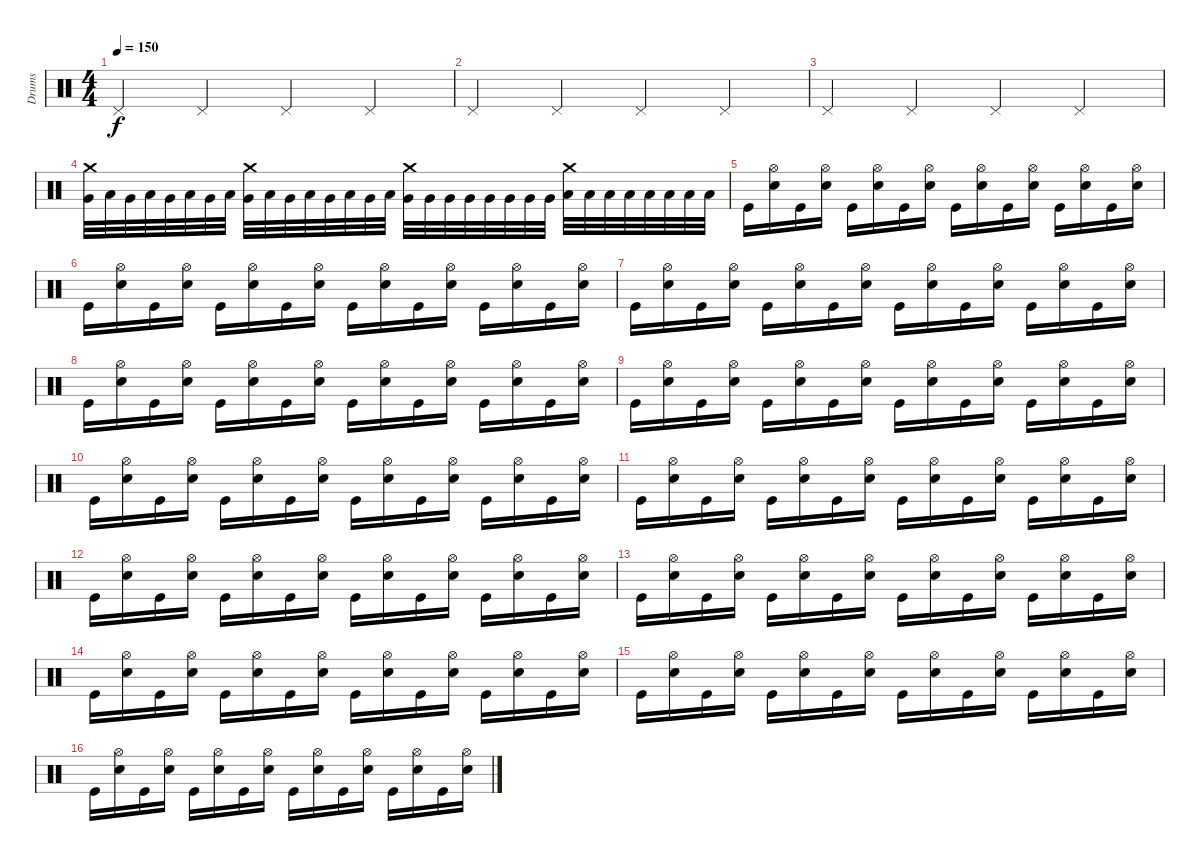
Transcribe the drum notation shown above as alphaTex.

\track ("Drums" "Drums") {instrument percussion}
\staff {score}
\articulation defaults
\ts (4 4)
\tempo 150
\clef neutral
\ks c "Pedal Hi-Hat (hit)".4{dy f} "Pedal Hi-Hat (hit)".4 "Pedal Hi-Hat (hit)".4 "Pedal Hi-Hat (hit)".4
|
"Pedal Hi-Hat (hit)".4 "Pedal Hi-Hat (hit)".4 "Pedal Hi-Hat (hit)".4 "Pedal Hi-Hat (hit)".4 |
"Pedal Hi-Hat (hit)".4 "Pedal Hi-Hat (hit)".4 "Pedal Hi-Hat (hit)".4 "Pedal Hi-Hat (hit)".4 |
("Crash medium (hit)" "Very Low Tom (hit)").32 "Low Tom (hit)".32 "Very Low Tom (hit)".32 "Low Tom (hit)".32 "Very Low Tom (hit)".32 "Low Tom (hit)".32 "Very Low Tom (hit)".32 "Low Tom (hit)".32 ("Crash medium (hit)" "Very Low Tom (hit)").32 "Low Tom (hit)".32 "Very Low Tom (hit)".32 "Low Tom (hit)".32 "Very Low Tom (hit)".32 "Low Tom (hit)".32 "Very Low Tom (hit)".32 "Low Tom (hit)".32 ("Crash medium (hit)" "Very Low Tom (hit)").32 "Very Low Tom (hit)".32 "Very Low Tom (hit)".32 "Very Low Tom (hit)".32 "Very Low Tom (hit)".32 "Very Low Tom (hit)".32 "Very Low Tom (hit)".32 "Very Low Tom (hit)".32 ("Crash medium (hit)" "Low Tom (hit)").32 "Low Tom (hit)".32 "Low Tom (hit)".32 "Low Tom (hit)".32 "Low Tom (hit)".32 "Low Tom (hit)".32 "Low Tom (hit)".32 "Low Tom (hit)".32 |
"Kick (hit)".16 ("Hi-Hat (open)" "Electric Snare (hit)").16 "Kick (hit)".16 ("Hi-Hat (open)" "Electric Snare (hit)").16 "Kick (hit)".16 ("Hi-Hat (open)" "Electric Snare (hit)").16 "Kick (hit)".16 ("Hi-Hat (open)" "Electric Snare (hit)").16 "Kick (hit)".16 ("Hi-Hat (open)" "Electric Snare (hit)").16 "Kick (hit)".16 ("Hi-Hat (open)" "Electric Snare (hit)").16 "Kick (hit)".16 ("Hi-Hat (open)" "Electric Snare (hit)").16 "Kick (hit)".16 ("Hi-Hat (open)" "Electric Snare (hit)").16 |
"Kick (hit)".16 ("Hi-Hat (open)" "Electric Snare (hit)").16 "Kick (hit)".16 ("Hi-Hat (open)" "Electric Snare (hit)").16 "Kick (hit)".16 ("Hi-Hat (open)" "Electric Snare (hit)").16 "Kick (hit)".16 ("Hi-Hat (open)" "Electric Snare (hit)").16 "Kick (hit)".16 ("Hi-Hat (open)" "Electric Snare (hit)").16 "Kick (hit)".16 ("Hi-Hat (open)" "Electric Snare (hit)").16 "Kick (hit)".16 ("Hi-Hat (open)" "Electric Snare (hit)").16 "Kick (hit)".16 ("Hi-Hat (open)" "Electric Snare (hit)").16 |
"Kick (hit)".16 ("Hi-Hat (open)" "Electric Snare (hit)").16 "Kick (hit)".16 ("Hi-Hat (open)" "Electric Snare (hit)").16 "Kick (hit)".16 ("Hi-Hat (open)" "Electric Snare (hit)").16 "Kick (hit)".16 ("Hi-Hat (open)" "Electric Snare (hit)").16 "Kick (hit)".16 ("Hi-Hat (open)" "Electric Snare (hit)").16 "Kick (hit)".16 ("Hi-Hat (open)" "Electric Snare (hit)").16 "Kick (hit)".16 ("Hi-Hat (open)" "Electric Snare (hit)").16 "Kick (hit)".16 ("Hi-Hat (open)" "Electric Snare (hit)").16 |
"Kick (hit)".16 ("Hi-Hat (open)" "Electric Snare (hit)").16 "Kick (hit)".16 ("Hi-Hat (open)" "Electric Snare (hit)").16 "Kick (hit)".16 ("Hi-Hat (open)" "Electric Snare (hit)").16 "Kick (hit)".16 ("Hi-Hat (open)" "Electric Snare (hit)").16 "Kick (hit)".16 ("Hi-Hat (open)" "Electric Snare (hit)").16 "Kick (hit)".16 ("Hi-Hat (open)" "Electric Snare (hit)").16 "Kick (hit)".16 ("Hi-Hat (open)" "Electric Snare (hit)").16 "Kick (hit)".16 ("Hi-Hat (open)" "Electric Snare (hit)").16 |
"Kick (hit)".16 ("Hi-Hat (open)" "Electric Snare (hit)").16 "Kick (hit)".16 ("Hi-Hat (open)" "Electric Snare (hit)").16 "Kick (hit)".16 ("Hi-Hat (open)" "Electric Snare (hit)").16 "Kick (hit)".16 ("Hi-Hat (open)" "Electric Snare (hit)").16 "Kick (hit)".16 ("Hi-Hat (open)" "Electric Snare (hit)").16 "Kick (hit)".16 ("Hi-Hat (open)" "Electric Snare (hit)").16 "Kick (hit)".16 ("Hi-Hat (open)" "Electric Snare (hit)").16 "Kick (hit)".16 ("Hi-Hat (open)" "Electric Snare (hit)").16 |
"Kick (hit)".16 ("Hi-Hat (open)" "Electric Snare (hit)").16 "Kick (hit)".16 ("Hi-Hat (open)" "Electric Snare (hit)").16 "Kick (hit)".16 ("Hi-Hat (open)" "Electric Snare (hit)").16 "Kick (hit)".16 ("Hi-Hat (open)" "Electric Snare (hit)").16 "Kick (hit)".16 ("Hi-Hat (open)" "Electric Snare (hit)").16 "Kick (hit)".16 ("Hi-Hat (open)" "Electric Snare (hit)").16 "Kick (hit)".16 ("Hi-Hat (open)" "Electric Snare (hit)").16 "Kick (hit)".16 ("Hi-Hat (open)" "Electric Snare (hit)").16 |
"Kick (hit)".16 ("Hi-Hat (open)" "Electric Snare (hit)").16 "Kick (hit)".16 ("Hi-Hat (open)" "Electric Snare (hit)").16 "Kick (hit)".16 ("Hi-Hat (open)" "Electric Snare (hit)").16 "Kick (hit)".16 ("Hi-Hat (open)" "Electric Snare (hit)").16 "Kick (hit)".16 ("Hi-Hat (open)" "Electric Snare (hit)").16 "Kick (hit)".16 ("Hi-Hat (open)" "Electric Snare (hit)").16 "Kick (hit)".16 ("Hi-Hat (open)" "Electric Snare (hit)").16 "Kick (hit)".16 ("Hi-Hat (open)" "Electric Snare (hit)").16 |
"Kick (hit)".16 ("Hi-Hat (open)" "Electric Snare (hit)").16 "Kick (hit)".16 ("Hi-Hat (open)" "Electric Snare (hit)").16 "Kick (hit)".16 ("Hi-Hat (open)" "Electric Snare (hit)").16 "Kick (hit)".16 ("Hi-Hat (open)" "Electric Snare (hit)").16 "Kick (hit)".16 ("Hi-Hat (open)" "Electric Snare (hit)").16 "Kick (hit)".16 ("Hi-Hat (open)" "Electric Snare (hit)").16 "Kick (hit)".16 ("Hi-Hat (open)" "Electric Snare (hit)").16 "Kick (hit)".16 ("Hi-Hat (open)" "Electric Snare (hit)").16 |
"Kick (hit)".16 ("Hi-Hat (open)" "Electric Snare (hit)").16 "Kick (hit)".16 ("Hi-Hat (open)" "Electric Snare (hit)").16 "Kick (hit)".16 ("Hi-Hat (open)" "Electric Snare (hit)").16 "Kick (hit)".16 ("Hi-Hat (open)" "Electric Snare (hit)").16 "Kick (hit)".16 ("Hi-Hat (open)" "Electric Snare (hit)").16 "Kick (hit)".16 ("Hi-Hat (open)" "Electric Snare (hit)").16 "Kick (hit)".16 ("Hi-Hat (open)" "Electric Snare (hit)").16 "Kick (hit)".16 ("Hi-Hat (open)" "Electric Snare (hit)").16 |
"Kick (hit)".16 ("Hi-Hat (open)" "Electric Snare (hit)").16 "Kick (hit)".16 ("Hi-Hat (open)" "Electric Snare (hit)").16 "Kick (hit)".16 ("Hi-Hat (open)" "Electric Snare (hit)").16 "Kick (hit)".16 ("Hi-Hat (open)" "Electric Snare (hit)").16 "Kick (hit)".16 ("Hi-Hat (open)" "Electric Snare (hit)").16 "Kick (hit)".16 ("Hi-Hat (open)" "Electric Snare (hit)").16 "Kick (hit)".16 ("Hi-Hat (open)" "Electric Snare (hit)").16 "Kick (hit)".16 ("Hi-Hat (open)" "Electric Snare (hit)").16 |
"Kick (hit)".16 ("Hi-Hat (open)" "Electric Snare (hit)").16 "Kick (hit)".16 ("Hi-Hat (open)" "Electric Snare (hit)").16 "Kick (hit)".16 ("Hi-Hat (open)" "Electric Snare (hit)").16 "Kick (hit)".16 ("Hi-Hat (open)" "Electric Snare (hit)").16 "Kick (hit)".16 ("Hi-Hat (open)" "Electric Snare (hit)").16 "Kick (hit)".16 ("Hi-Hat (open)" "Electric Snare (hit)").16 "Kick (hit)".16 ("Hi-Hat (open)" "Electric Snare (hit)").16 "Kick (hit)".16 ("Hi-Hat (open)" "Electric Snare (hit)").16 |
"Kick (hit)".16 ("Hi-Hat (open)" "Electric Snare (hit)").16 "Kick (hit)".16 ("Hi-Hat (open)" "Electric Snare (hit)").16 "Kick (hit)".16 ("Hi-Hat (open)" "Electric Snare (hit)").16 "Kick (hit)".16 ("Hi-Hat (open)" "Electric Snare (hit)").16 "Kick (hit)".16 ("Hi-Hat (open)" "Electric Snare (hit)").16 "Kick (hit)".16 ("Hi-Hat (open)" "Electric Snare (hit)").16 "Kick (hit)".16 ("Hi-Hat (open)" "Electric Snare (hit)").16 "Kick (hit)".16 ("Hi-Hat (open)" "Electric Snare (hit)").16
